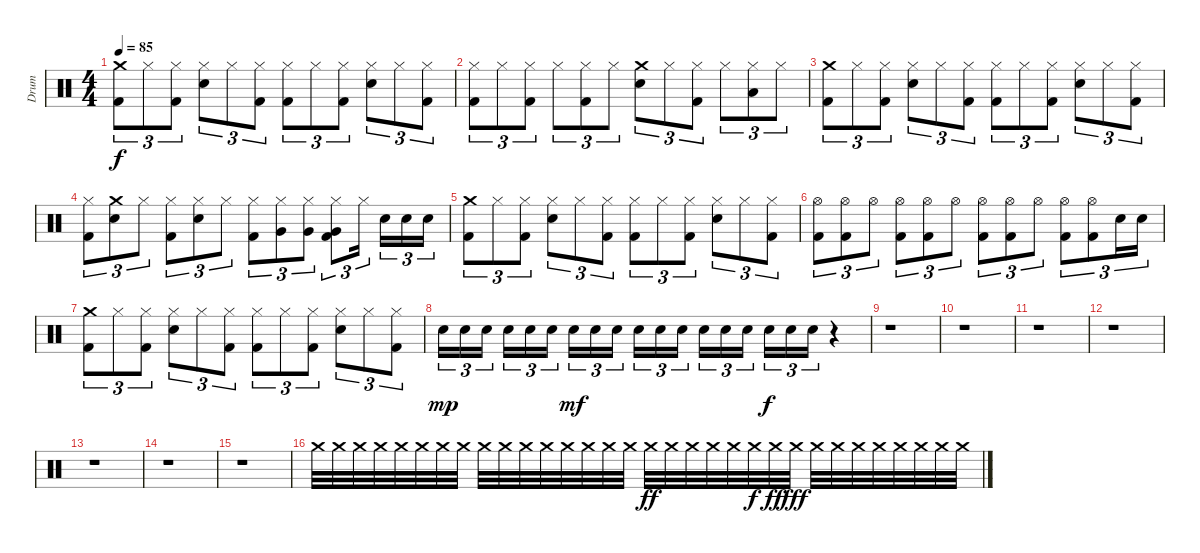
\track ("Drum" "Drum") {instrument percussion}
\staff {score}
\articulation defaults
\ts (4 4)
\tempo 85
\clef neutral
\ks c
("Crash medium (hit)" "Kick (hit) 2").8{tu (3 2) dy f} "Hi-Hat (closed)".8{tu (3 2)} ("Hi-Hat (closed)" "Kick (hit) 2").8{tu (3 2)} ("Hi-Hat (closed)" "Snare (hit) 2").8{tu (3 2)} "Hi-Hat (closed)".8{tu (3 2)} ("Hi-Hat (closed)" "Kick (hit) 2").8{tu (3 2)} ("Hi-Hat (closed)" "Kick (hit) 2").8{tu (3 2)} "Hi-Hat (closed)".8{tu (3 2)} ("Hi-Hat (closed)" "Kick (hit) 2").8{tu (3 2)} ("Hi-Hat (closed)" "Snare (hit) 2").8{tu (3 2)} "Hi-Hat (closed)".8{tu (3 2)} ("Hi-Hat (closed)" "Kick (hit) 2").8{tu (3 2)} |
("Hi-Hat (closed)" "Kick (hit) 2").8{tu (3 2)} "Hi-Hat (closed)".8{tu (3 2)} ("Hi-Hat (closed)" "Kick (hit) 2").8{tu (3 2)} "Hi-Hat (closed)".8{tu (3 2)} ("Hi-Hat (closed)" "Kick (hit) 2").8{tu (3 2)} "Hi-Hat (closed)".8{tu (3 2)} ("Crash medium (hit)" "Snare (hit) 2").8{tu (3 2)} "Hi-Hat (closed)".8{tu (3 2)} ("Hi-Hat (closed)" "Kick (hit) 2").8{tu (3 2)} "Hi-Hat (closed)".8{tu (3 2)} ("Hi-Hat (closed)" "Low Tom (hit)").8{tu (3 2)} "Hi-Hat (closed)".8{tu (3 2)} |
("Crash medium (hit)" "Kick (hit) 2").8{tu (3 2)} "Hi-Hat (closed)".8{tu (3 2)} ("Hi-Hat (closed)" "Kick (hit) 2").8{tu (3 2)} ("Hi-Hat (closed)" "Snare (hit) 2").8{tu (3 2)} "Hi-Hat (closed)".8{tu (3 2)} ("Hi-Hat (closed)" "Kick (hit) 2").8{tu (3 2)} ("Hi-Hat (closed)" "Kick (hit) 2").8{tu (3 2)} "Hi-Hat (closed)".8{tu (3 2)} ("Hi-Hat (closed)" "Kick (hit) 2").8{tu (3 2)} ("Hi-Hat (closed)" "Snare (hit) 2").8{tu (3 2)} "Hi-Hat (closed)".8{tu (3 2)} ("Hi-Hat (closed)" "Kick (hit) 2").8{tu (3 2)} |
("Hi-Hat (closed)" "Kick (hit) 2").8{tu (3 2)} ("Crash medium (hit)" "Snare (hit) 2").8{tu (3 2)} "Hi-Hat (closed)".8{tu (3 2)} ("Hi-Hat (closed)" "Kick (hit) 2").8{tu (3 2)} ("Hi-Hat (closed)" "Snare (hit) 2").8{tu (3 2)} "Hi-Hat (closed)".8{tu (3 2)} ("Hi-Hat (closed)" "Kick (hit) 2").8{tu (3 2)} ("Hi-Hat (closed)" "Very Low Tom (hit)").8{tu (3 2)} ("Hi-Hat (closed)" "Very Low Tom (hit)").8{tu (3 2)} ("Hi-Hat (closed)" "Very Low Tom (hit)" "Kick (hit) 2").8{tu (3 2)} "Hi-Hat (closed)".16{tu (3 2)} "Snare (hit) 2".16{tu (3 2)} "Snare (hit) 2".16{tu (3 2)} "Snare (hit) 2".16{tu (3 2)} |
("Crash medium (hit)" "Kick (hit) 2").8{tu (3 2)} "Hi-Hat (closed)".8{tu (3 2)} ("Hi-Hat (closed)" "Kick (hit) 2").8{tu (3 2)} ("Hi-Hat (closed)" "Snare (hit) 2").8{tu (3 2)} "Hi-Hat (closed)".8{tu (3 2)} ("Hi-Hat (closed)" "Kick (hit) 2").8{tu (3 2)} ("Hi-Hat (closed)" "Kick (hit) 2").8{tu (3 2)} "Hi-Hat (closed)".8{tu (3 2)} ("Hi-Hat (closed)" "Kick (hit) 2").8{tu (3 2)} ("Hi-Hat (closed)" "Snare (hit) 2").8{tu (3 2)} "Hi-Hat (closed)".8{tu (3 2)} ("Hi-Hat (closed)" "Kick (hit) 2").8{tu (3 2)} |
("Hi-Hat (open)" "Kick (hit) 2").8{tu (3 2)} ("Hi-Hat (open)" "Kick (hit) 2").8{tu (3 2)} "Hi-Hat (open)".8{tu (3 2)} ("Hi-Hat (open)" "Kick (hit) 2").8{tu (3 2)} ("Hi-Hat (open)" "Kick (hit) 2").8{tu (3 2)} "Hi-Hat (open)".8{tu (3 2)} ("Hi-Hat (open)" "Kick (hit) 2").8{tu (3 2)} ("Hi-Hat (open)" "Kick (hit) 2").8{tu (3 2)} "Hi-Hat (open)".8{tu (3 2)} ("Hi-Hat (open)" "Kick (hit) 2").8{tu (3 2)} ("Hi-Hat (open)" "Kick (hit) 2").8{tu (3 2)} "Snare (hit) 2".16{tu (3 2)} "Snare (hit) 2".16{tu (3 2)} |
("Crash medium (hit)" "Kick (hit) 2").8{tu (3 2)} "Hi-Hat (closed)".8{tu (3 2)} ("Hi-Hat (closed)" "Kick (hit) 2").8{tu (3 2)} ("Hi-Hat (closed)" "Snare (hit) 2").8{tu (3 2)} "Hi-Hat (closed)".8{tu (3 2)} ("Hi-Hat (closed)" "Kick (hit) 2").8{tu (3 2)} ("Hi-Hat (closed)" "Kick (hit) 2").8{tu (3 2)} "Hi-Hat (closed)".8{tu (3 2)} ("Hi-Hat (closed)" "Kick (hit) 2").8{tu (3 2)} ("Hi-Hat (closed)" "Snare (hit) 2").8{tu (3 2)} "Hi-Hat (closed)".8{tu (3 2)} ("Hi-Hat (closed)" "Kick (hit) 2").8{tu (3 2)} |
"Snare (hit) 2".16{tu (3 2) dy mp} "Snare (hit) 2".16{tu (3 2)} "Snare (hit) 2".16{tu (3 2)} "Snare (hit) 2".16{tu (3 2)} "Snare (hit) 2".16{tu (3 2)} "Snare (hit) 2".16{tu (3 2)} "Snare (hit) 2".16{tu (3 2) dy mf} "Snare (hit) 2".16{tu (3 2)} "Snare (hit) 2".16{tu (3 2)} "Snare (hit) 2".16{tu (3 2)} "Snare (hit) 2".16{tu (3 2)} "Snare (hit) 2".16{tu (3 2)} "Snare (hit) 2".16{tu (3 2)} "Snare (hit) 2".16{tu (3 2)} "Snare (hit) 2".16{tu (3 2)} "Snare (hit) 2".16{tu (3 2) dy f} "Snare (hit) 2".16{tu (3 2)} "Snare (hit) 2".16{tu (3 2)} r.4 |
r.1 |
r.1 |
r.1 |
r.1 |
r.1 |
r.1 |
r.1 |
"Crash medium (hit)".32{volume 6} "Crash medium (hit)".32{volume 6} "Crash medium (hit)".32{volume 7} "Crash medium (hit)".32{volume 8} "Crash medium (hit)".32{volume 8} "Crash medium (hit)".32{volume 9} "Crash medium (hit)".32{volume 9} "Crash medium (hit)".32{volume 10} "Crash medium (hit)".32{volume 10} "Crash medium (hit)".32{volume 11} "Crash medium (hit)".32{volume 12} "Crash medium (hit)".32{volume 12} "Crash medium (hit)".32{volume 13} "Crash medium (hit)".32{volume 13} "Crash medium (hit)".32{volume 14} "Crash medium (hit)".32{volume 14} "Crash medium (hit)".32{dy ff volume 15} "Crash medium (hit)".32{volume 15} "Crash medium (hit)".32{volume 15} "Crash medium (hit)".32{volume 15} "Crash medium (hit)".32{volume 15} "Crash medium (hit)".32{dy f volume 15} "Crash medium (hit)".32{dy ff volume 15} "Crash medium (hit)".32{dy fff volume 15} "Crash medium (hit)".32{volume 15} "Crash medium (hit)".32{volume 15} "Crash medium (hit)".32{volume 15} "Crash medium (hit)".32{volume 15} "Crash medium (hit)".32{volume 15} "Crash medium (hit)".32{volume 15} "Crash medium (hit)".32{volume 15} "Crash medium (hit)".32{volume 15}
